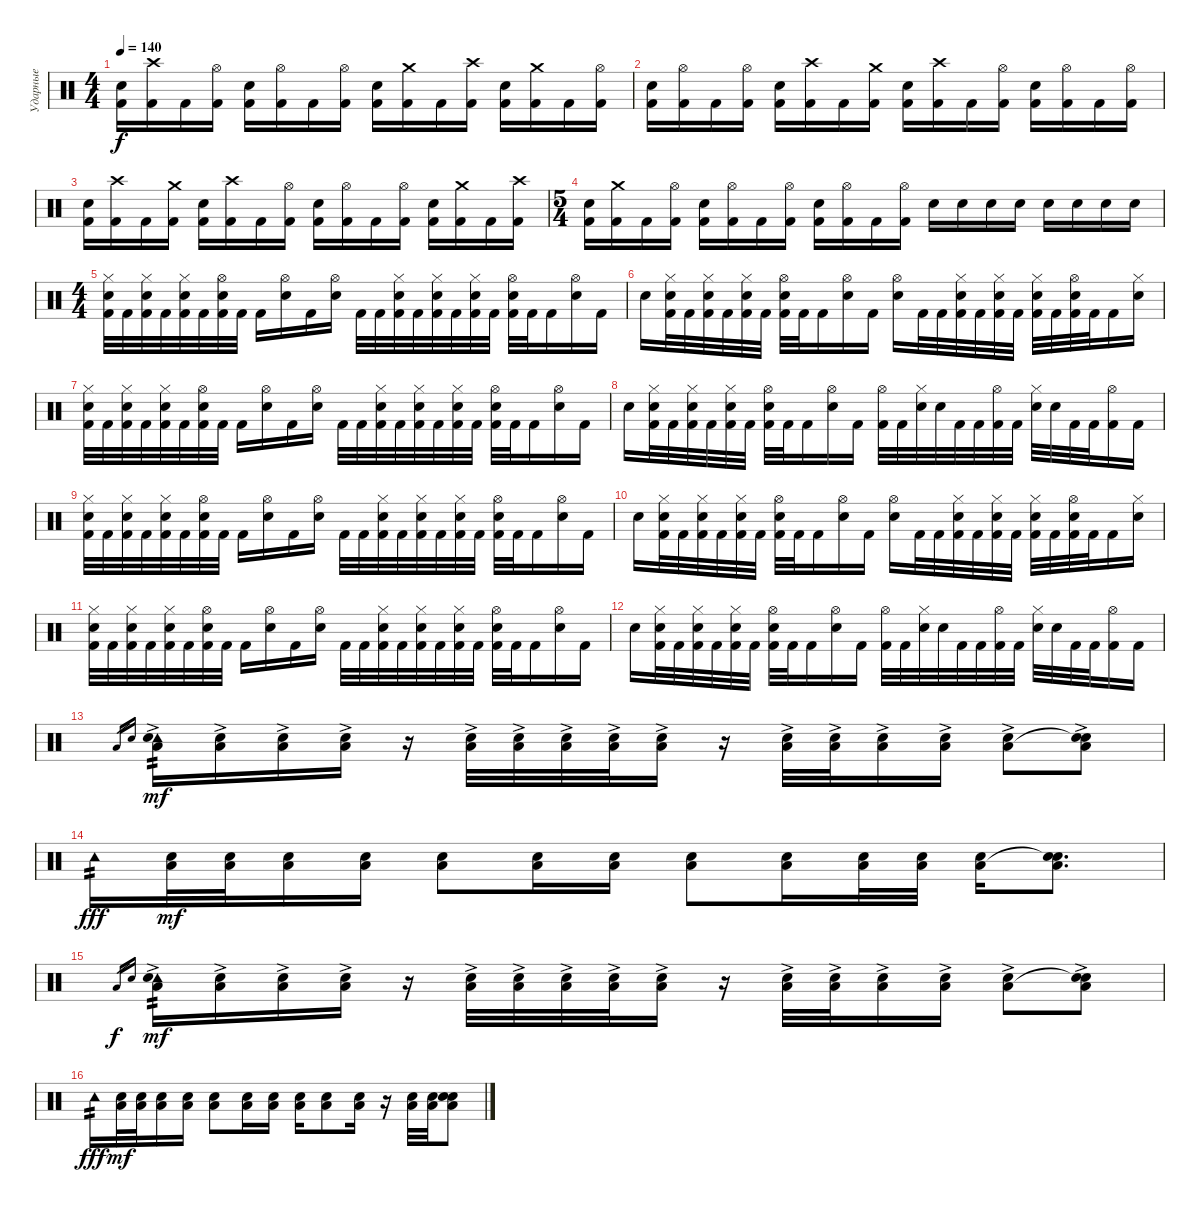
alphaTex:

\track ("Ударные" "Ударные") {instrument percussion}
\staff {score}
\articulation defaults
\ts (4 4)
\tempo 140
\clef neutral
\ks c
("Electric Snare (hit)" "Kick (hit) 2").16{dy f} ("Crash high (hit)" "Kick (hit) 2").16 "Kick (hit) 2".16 ("Hi-Hat (open)" "Kick (hit) 2").16 ("Electric Snare (hit)" "Kick (hit) 2").16 ("Hi-Hat (open)" "Kick (hit) 2").16 "Kick (hit) 2".16 ("Hi-Hat (open)" "Kick (hit) 2").16 ("Electric Snare (hit)" "Kick (hit) 2").16 ("Crash medium (hit)" "Kick (hit) 2").16 "Kick (hit) 2".16 ("Crash high (hit)" "Kick (hit) 2").16 ("Electric Snare (hit)" "Kick (hit) 2").16 ("Crash medium (hit)" "Kick (hit) 2").16 "Kick (hit) 2".16 ("Hi-Hat (open)" "Kick (hit) 2").16 |
("Electric Snare (hit)" "Kick (hit) 2").16 ("Hi-Hat (open)" "Kick (hit) 2").16 "Kick (hit) 2".16 ("Hi-Hat (open)" "Kick (hit) 2").16 ("Electric Snare (hit)" "Kick (hit) 2").16 ("Crash high (hit)" "Kick (hit) 2").16 "Kick (hit) 2".16 ("Crash medium (hit)" "Kick (hit) 2").16 ("Electric Snare (hit)" "Kick (hit) 2").16 ("Crash high (hit)" "Kick (hit) 2").16 "Kick (hit) 2".16 ("Hi-Hat (open)" "Kick (hit) 2").16 ("Electric Snare (hit)" "Kick (hit) 2").16 ("Hi-Hat (open)" "Kick (hit) 2").16 "Kick (hit) 2".16 ("Hi-Hat (open)" "Kick (hit) 2").16 |
("Electric Snare (hit)" "Kick (hit) 2").16 ("Crash high (hit)" "Kick (hit) 2").16 "Kick (hit) 2".16 ("Crash medium (hit)" "Kick (hit) 2").16 ("Electric Snare (hit)" "Kick (hit) 2").16 ("Crash high (hit)" "Kick (hit) 2").16 "Kick (hit) 2".16 ("Hi-Hat (open)" "Kick (hit) 2").16 ("Electric Snare (hit)" "Kick (hit) 2").16 ("Hi-Hat (open)" "Kick (hit) 2").16 "Kick (hit) 2".16 ("Hi-Hat (open)" "Kick (hit) 2").16 ("Electric Snare (hit)" "Kick (hit) 2").16 ("Crash medium (hit)" "Kick (hit) 2").16 "Kick (hit) 2".16 ("Crash high (hit)" "Kick (hit) 2").16 |
\ts (5 4)
("Electric Snare (hit)" "Kick (hit) 2").16 ("Crash medium (hit)" "Kick (hit) 2").16 "Kick (hit) 2".16 ("Hi-Hat (open)" "Kick (hit) 2").16 ("Electric Snare (hit)" "Kick (hit) 2").16 ("Hi-Hat (open)" "Kick (hit) 2").16 "Kick (hit) 2".16 ("Hi-Hat (open)" "Kick (hit) 2").16 ("Electric Snare (hit)" "Kick (hit) 2").16 ("Hi-Hat (open)" "Kick (hit) 2").16 "Kick (hit) 2".16 ("Hi-Hat (open)" "Kick (hit) 2").16 "Electric Snare (hit)".16 "Electric Snare (hit)".16 "Electric Snare (hit)".16 "Electric Snare (hit)".16 "Electric Snare (hit)".16 "Electric Snare (hit)".16 "Electric Snare (hit)".16 "Electric Snare (hit)".16 |
\ts (4 4)
("Hi-Hat (closed)" "Electric Snare (hit)" "Kick (hit) 2").32 "Kick (hit) 2".32 ("Hi-Hat (closed)" "Electric Snare (hit)" "Kick (hit) 2").32 "Kick (hit) 2".32 ("Hi-Hat (closed)" "Electric Snare (hit)" "Kick (hit) 2").32 "Kick (hit) 2".32 ("Hi-Hat (open)" "Electric Snare (hit)" "Kick (hit) 2").32 "Kick (hit) 2".32 "Kick (hit) 2".16 ("Hi-Hat (open)" "Electric Snare (hit)").16 "Kick (hit) 2".16 ("Hi-Hat (open)" "Electric Snare (hit)").16 "Kick (hit) 2".32 "Kick (hit) 2".32 ("Hi-Hat (closed)" "Electric Snare (hit)" "Kick (hit) 2").32 "Kick (hit) 2".32 ("Hi-Hat (closed)" "Electric Snare (hit)" "Kick (hit) 2").32 "Kick (hit) 2".32 ("Hi-Hat (closed)" "Electric Snare (hit)" "Kick (hit) 2").32 "Kick (hit) 2".32 ("Hi-Hat (open)" "Electric Snare (hit)" "Kick (hit) 2").32 "Kick (hit) 2".32 "Kick (hit) 2".16 ("Hi-Hat (open)" "Electric Snare (hit)").16 "Kick (hit) 2".16 |
"Electric Snare (hit)".16 ("Hi-Hat (closed)" "Electric Snare (hit)" "Kick (hit) 2").32 "Kick (hit) 2".32 ("Hi-Hat (closed)" "Electric Snare (hit)" "Kick (hit) 2").32 "Kick (hit) 2".32 ("Hi-Hat (closed)" "Electric Snare (hit)" "Kick (hit) 2").32 "Kick (hit) 2".32 ("Hi-Hat (open)" "Electric Snare (hit)" "Kick (hit) 2").32 "Kick (hit) 2".32 "Kick (hit) 2".16 ("Hi-Hat (open)" "Electric Snare (hit)").16 "Kick (hit) 2".16 ("Hi-Hat (open)" "Electric Snare (hit)").16 "Kick (hit) 2".32 "Kick (hit) 2".32 ("Hi-Hat (closed)" "Electric Snare (hit)" "Kick (hit) 2").32 "Kick (hit) 2".32 ("Hi-Hat (closed)" "Electric Snare (hit)" "Kick (hit) 2").32 "Kick (hit) 2".32 ("Hi-Hat (closed)" "Electric Snare (hit)" "Kick (hit) 2").32 "Kick (hit) 2".32 ("Hi-Hat (open)" "Electric Snare (hit)" "Kick (hit) 2").32 "Kick (hit) 2".32 "Kick (hit) 2".16 ("Hi-Hat (closed)" "Electric Snare (hit)").16 |
("Hi-Hat (closed)" "Electric Snare (hit)" "Kick (hit) 2").32 "Kick (hit) 2".32 ("Hi-Hat (closed)" "Electric Snare (hit)" "Kick (hit) 2").32 "Kick (hit) 2".32 ("Hi-Hat (closed)" "Electric Snare (hit)" "Kick (hit) 2").32 "Kick (hit) 2".32 ("Hi-Hat (open)" "Electric Snare (hit)" "Kick (hit) 2").32 "Kick (hit) 2".32 "Kick (hit) 2".16 ("Hi-Hat (open)" "Electric Snare (hit)").16 "Kick (hit) 2".16 ("Hi-Hat (open)" "Electric Snare (hit)").16 "Kick (hit) 2".32 "Kick (hit) 2".32 ("Hi-Hat (closed)" "Electric Snare (hit)" "Kick (hit) 2").32 "Kick (hit) 2".32 ("Hi-Hat (closed)" "Electric Snare (hit)" "Kick (hit) 2").32 "Kick (hit) 2".32 ("Hi-Hat (closed)" "Electric Snare (hit)" "Kick (hit) 2").32 "Kick (hit) 2".32 ("Hi-Hat (open)" "Electric Snare (hit)" "Kick (hit) 2").32 "Kick (hit) 2".32 "Kick (hit) 2".16 ("Hi-Hat (open)" "Electric Snare (hit)").16 "Kick (hit) 2".16 |
"Electric Snare (hit)".16 ("Hi-Hat (closed)" "Electric Snare (hit)" "Kick (hit) 2").32 "Kick (hit) 2".32 ("Hi-Hat (closed)" "Electric Snare (hit)" "Kick (hit) 2").32 "Kick (hit) 2".32 ("Hi-Hat (closed)" "Electric Snare (hit)" "Kick (hit) 2").32 "Kick (hit) 2".32 ("Hi-Hat (open)" "Electric Snare (hit)" "Kick (hit) 2").32 "Kick (hit) 2".32 "Kick (hit) 2".16 ("Hi-Hat (open)" "Electric Snare (hit)").16 "Kick (hit) 2".16 ("Hi-Hat (open)" "Kick (hit) 2").32 "Kick (hit) 2".32 ("Hi-Hat (closed)" "Electric Snare (hit)").32 "Electric Snare (hit)".32 "Kick (hit) 2".32 "Kick (hit) 2".32 ("Hi-Hat (open)" "Kick (hit) 2").32 "Kick (hit) 2".32 ("Hi-Hat (closed)" "Electric Snare (hit)").32 "Electric Snare (hit)".32 "Kick (hit) 2".32 "Kick (hit) 2".32 ("Hi-Hat (open)" "Kick (hit) 2").16 "Kick (hit) 2".16 |
("Hi-Hat (closed)" "Electric Snare (hit)" "Kick (hit) 2").32 "Kick (hit) 2".32 ("Hi-Hat (closed)" "Electric Snare (hit)" "Kick (hit) 2").32 "Kick (hit) 2".32 ("Hi-Hat (closed)" "Electric Snare (hit)" "Kick (hit) 2").32 "Kick (hit) 2".32 ("Hi-Hat (open)" "Electric Snare (hit)" "Kick (hit) 2").32 "Kick (hit) 2".32 "Kick (hit) 2".16 ("Hi-Hat (open)" "Electric Snare (hit)").16 "Kick (hit) 2".16 ("Hi-Hat (open)" "Electric Snare (hit)").16 "Kick (hit) 2".32 "Kick (hit) 2".32 ("Hi-Hat (closed)" "Electric Snare (hit)" "Kick (hit) 2").32 "Kick (hit) 2".32 ("Hi-Hat (closed)" "Electric Snare (hit)" "Kick (hit) 2").32 "Kick (hit) 2".32 ("Hi-Hat (closed)" "Electric Snare (hit)" "Kick (hit) 2").32 "Kick (hit) 2".32 ("Hi-Hat (open)" "Electric Snare (hit)" "Kick (hit) 2").32 "Kick (hit) 2".32 "Kick (hit) 2".16 ("Hi-Hat (open)" "Electric Snare (hit)").16 "Kick (hit) 2".16 |
"Electric Snare (hit)".16 ("Hi-Hat (closed)" "Electric Snare (hit)" "Kick (hit) 2").32 "Kick (hit) 2".32 ("Hi-Hat (closed)" "Electric Snare (hit)" "Kick (hit) 2").32 "Kick (hit) 2".32 ("Hi-Hat (closed)" "Electric Snare (hit)" "Kick (hit) 2").32 "Kick (hit) 2".32 ("Hi-Hat (open)" "Electric Snare (hit)" "Kick (hit) 2").32 "Kick (hit) 2".32 "Kick (hit) 2".16 ("Hi-Hat (open)" "Electric Snare (hit)").16 "Kick (hit) 2".16 ("Hi-Hat (open)" "Electric Snare (hit)").16 "Kick (hit) 2".32 "Kick (hit) 2".32 ("Hi-Hat (closed)" "Electric Snare (hit)" "Kick (hit) 2").32 "Kick (hit) 2".32 ("Hi-Hat (closed)" "Electric Snare (hit)" "Kick (hit) 2").32 "Kick (hit) 2".32 ("Hi-Hat (closed)" "Electric Snare (hit)" "Kick (hit) 2").32 "Kick (hit) 2".32 ("Hi-Hat (open)" "Electric Snare (hit)" "Kick (hit) 2").32 "Kick (hit) 2".32 "Kick (hit) 2".16 ("Hi-Hat (closed)" "Electric Snare (hit)").16 |
("Hi-Hat (closed)" "Electric Snare (hit)" "Kick (hit) 2").32 "Kick (hit) 2".32 ("Hi-Hat (closed)" "Electric Snare (hit)" "Kick (hit) 2").32 "Kick (hit) 2".32 ("Hi-Hat (closed)" "Electric Snare (hit)" "Kick (hit) 2").32 "Kick (hit) 2".32 ("Hi-Hat (open)" "Electric Snare (hit)" "Kick (hit) 2").32 "Kick (hit) 2".32 "Kick (hit) 2".16 ("Hi-Hat (open)" "Electric Snare (hit)").16 "Kick (hit) 2".16 ("Hi-Hat (open)" "Electric Snare (hit)").16 "Kick (hit) 2".32 "Kick (hit) 2".32 ("Hi-Hat (closed)" "Electric Snare (hit)" "Kick (hit) 2").32 "Kick (hit) 2".32 ("Hi-Hat (closed)" "Electric Snare (hit)" "Kick (hit) 2").32 "Kick (hit) 2".32 ("Hi-Hat (closed)" "Electric Snare (hit)" "Kick (hit) 2").32 "Kick (hit) 2".32 ("Hi-Hat (open)" "Electric Snare (hit)" "Kick (hit) 2").32 "Kick (hit) 2".32 "Kick (hit) 2".16 ("Hi-Hat (open)" "Electric Snare (hit)").16 "Kick (hit) 2".16 |
"Electric Snare (hit)".16 ("Hi-Hat (closed)" "Electric Snare (hit)" "Kick (hit) 2").32 "Kick (hit) 2".32 ("Hi-Hat (closed)" "Electric Snare (hit)" "Kick (hit) 2").32 "Kick (hit) 2".32 ("Hi-Hat (closed)" "Electric Snare (hit)" "Kick (hit) 2").32 "Kick (hit) 2".32 ("Hi-Hat (open)" "Electric Snare (hit)" "Kick (hit) 2").32 "Kick (hit) 2".32 "Kick (hit) 2".16 ("Hi-Hat (open)" "Electric Snare (hit)").16 "Kick (hit) 2".16 ("Hi-Hat (open)" "Kick (hit) 2").32 "Kick (hit) 2".32 ("Hi-Hat (closed)" "Electric Snare (hit)").32 "Electric Snare (hit)".32 "Kick (hit) 2".32 "Kick (hit) 2".32 ("Hi-Hat (open)" "Kick (hit) 2").32 "Kick (hit) 2".32 ("Hi-Hat (closed)" "Electric Snare (hit)").32 "Electric Snare (hit)".32 "Kick (hit) 2".32 "Kick (hit) 2".32 ("Hi-Hat (open)" "Kick (hit) 2").16 "Kick (hit) 2".16 |
"Low Tom (hit)".16{gr} "Electric Snare (hit)".16{gr} ("Tambourine (hit)" "Low Tom (hit)"{ac} "Electric Snare (hit)").16{tp 2 dy mf} ("Low Tom (hit)"{ac} "Electric Snare (hit)").16 ("Low Tom (hit)"{ac} "Electric Snare (hit)").16 ("Low Tom (hit)"{ac} "Electric Snare (hit)").16 r.16 ("Low Tom (hit)"{ac} "Electric Snare (hit)").32 ("Low Tom (hit)"{ac} "Electric Snare (hit)").32 ("Low Tom (hit)"{ac} "Electric Snare (hit)").32 ("Low Tom (hit)"{ac} "Electric Snare (hit)").32 ("Low Tom (hit)"{ac} "Electric Snare (hit)").16 r.16 ("Low Tom (hit)"{ac} "Electric Snare (hit)").32 ("Low Tom (hit)"{ac} "Electric Snare (hit)").32 ("Low Tom (hit)"{ac} "Electric Snare (hit)").16 ("Low Tom (hit)"{ac} "Electric Snare (hit)").16 ("Low Tom (hit)"{ac} "Electric Snare (hit)").8 ("Snare (hit)"{t} "Low Tom (hit)"{ac} "Electric Snare (hit)").8 |
"Tambourine (hit)".16{tp 2 dy fff} ("Low Tom (hit)" "Electric Snare (hit)").32{dy mf} ("Low Tom (hit)" "Electric Snare (hit)").32 ("Low Tom (hit)" "Electric Snare (hit)").16 ("Low Tom (hit)" "Electric Snare (hit)").16 ("Low Tom (hit)" "Electric Snare (hit)").8 ("Low Tom (hit)" "Electric Snare (hit)").16 ("Low Tom (hit)" "Electric Snare (hit)").16 ("Low Tom (hit)" "Electric Snare (hit)").8 ("Low Tom (hit)" "Electric Snare (hit)").16 ("Low Tom (hit)" "Electric Snare (hit)").32 ("Low Tom (hit)" "Electric Snare (hit)").32 ("Low Tom (hit)" "Electric Snare (hit)").16 ("Snare (hit)"{t} "Low Tom (hit)" "Electric Snare (hit)").8{d} |
"Low Tom (hit)".16{gr dy f} "Electric Snare (hit)".16{gr} ("Tambourine (hit)" "Low Tom (hit)"{ac} "Electric Snare (hit)").16{tp 2 dy mf} ("Low Tom (hit)"{ac} "Electric Snare (hit)").16 ("Low Tom (hit)"{ac} "Electric Snare (hit)").16 ("Low Tom (hit)"{ac} "Electric Snare (hit)").16 r.16 ("Low Tom (hit)"{ac} "Electric Snare (hit)").32 ("Low Tom (hit)"{ac} "Electric Snare (hit)").32 ("Low Tom (hit)"{ac} "Electric Snare (hit)").32 ("Low Tom (hit)"{ac} "Electric Snare (hit)").32 ("Low Tom (hit)"{ac} "Electric Snare (hit)").16 r.16 ("Low Tom (hit)"{ac} "Electric Snare (hit)").32 ("Low Tom (hit)"{ac} "Electric Snare (hit)").32 ("Low Tom (hit)"{ac} "Electric Snare (hit)").16 ("Low Tom (hit)"{ac} "Electric Snare (hit)").16 ("Low Tom (hit)"{ac} "Electric Snare (hit)").8 ("Snare (hit)"{t} "Low Tom (hit)"{ac} "Electric Snare (hit)").8 |
"Tambourine (hit)".16{tp 2 dy fff} ("Low Tom (hit)" "Electric Snare (hit)").32{dy mf} ("Low Tom (hit)" "Electric Snare (hit)").32 ("Low Tom (hit)" "Electric Snare (hit)").16 ("Low Tom (hit)" "Electric Snare (hit)").16 ("Low Tom (hit)" "Electric Snare (hit)").8 ("Low Tom (hit)" "Electric Snare (hit)").16 ("Low Tom (hit)" "Electric Snare (hit)").16 ("Low Tom (hit)" "Electric Snare (hit)").16 ("Low Tom (hit)" "Electric Snare (hit)").8 ("Low Tom (hit)" "Electric Snare (hit)").16 r.16 ("Low Tom (hit)" "Electric Snare (hit)").32 ("Low Tom (hit)" "Electric Snare (hit)").32 ("Snare (hit)"{t} "Low Tom (hit)" "Electric Snare (hit)").8
